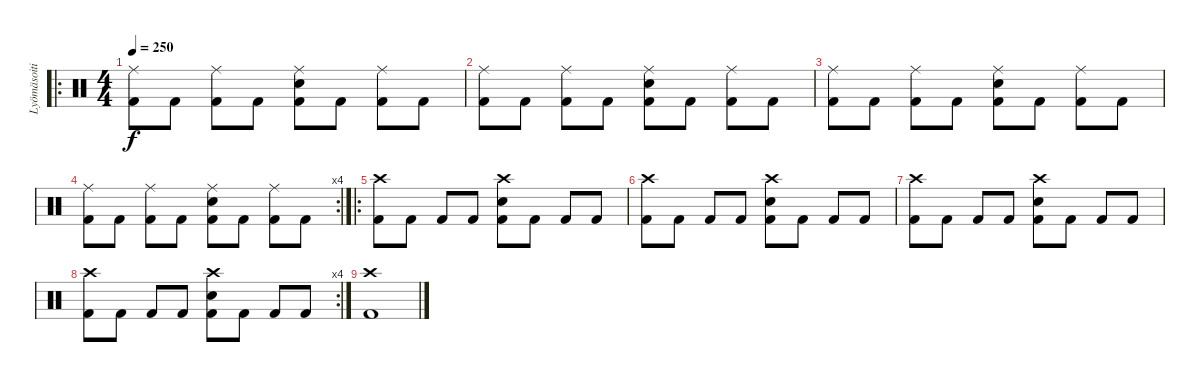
\track ("Lyömäsoitin" "Lyömäsoiti") {instrument percussion}
\staff {score}
\articulation defaults
\ro
\ts (4 4)
\tempo 250
\clef neutral
\ks c
("Ride (middle)" "Kick (hit) 2").8{dy f} "Kick (hit) 2".8 ("Ride (middle)" "Kick (hit) 2").8 "Kick (hit) 2".8 ("Ride (middle)" "Electric Snare (hit)" "Kick (hit) 2").8 "Kick (hit) 2".8 ("Ride (middle)" "Kick (hit) 2").8 "Kick (hit) 2".8 |
("Ride (middle)" "Kick (hit) 2").8 "Kick (hit) 2".8 ("Ride (middle)" "Kick (hit) 2").8 "Kick (hit) 2".8 ("Ride (middle)" "Electric Snare (hit)" "Kick (hit) 2").8 "Kick (hit) 2".8 ("Ride (middle)" "Kick (hit) 2").8 "Kick (hit) 2".8 |
("Ride (middle)" "Kick (hit) 2").8 "Kick (hit) 2".8 ("Ride (middle)" "Kick (hit) 2").8 "Kick (hit) 2".8 ("Ride (middle)" "Electric Snare (hit)" "Kick (hit) 2").8 "Kick (hit) 2".8 ("Ride (middle)" "Kick (hit) 2").8 "Kick (hit) 2".8 |
\rc 4
("Ride (middle)" "Kick (hit) 2").8 "Kick (hit) 2".8 ("Ride (middle)" "Kick (hit) 2").8 "Kick (hit) 2".8 ("Ride (middle)" "Electric Snare (hit)" "Kick (hit) 2").8 "Kick (hit) 2".8 ("Ride (middle)" "Kick (hit) 2").8 "Kick (hit) 2".8 |
\ro
("Crash high (hit)" "Kick (hit) 2").8 "Kick (hit) 2".8 "Kick (hit) 2".8 "Kick (hit) 2".8 ("Crash high (hit)" "Electric Snare (hit)" "Kick (hit) 2").8 "Kick (hit) 2".8 "Kick (hit) 2".8 "Kick (hit) 2".8 |
("Crash high (hit)" "Kick (hit) 2").8 "Kick (hit) 2".8 "Kick (hit) 2".8 "Kick (hit) 2".8 ("Crash high (hit)" "Electric Snare (hit)" "Kick (hit) 2").8 "Kick (hit) 2".8 "Kick (hit) 2".8 "Kick (hit) 2".8 |
("Crash high (hit)" "Kick (hit) 2").8 "Kick (hit) 2".8 "Kick (hit) 2".8 "Kick (hit) 2".8 ("Crash high (hit)" "Electric Snare (hit)" "Kick (hit) 2").8 "Kick (hit) 2".8 "Kick (hit) 2".8 "Kick (hit) 2".8 |
\rc 4
("Crash high (hit)" "Kick (hit) 2").8 "Kick (hit) 2".8 "Kick (hit) 2".8 "Kick (hit) 2".8 ("Crash high (hit)" "Electric Snare (hit)" "Kick (hit) 2").8 "Kick (hit) 2".8 "Kick (hit) 2".8 "Kick (hit) 2".8 |
("Crash high (hit)" "Kick (hit) 2").1
